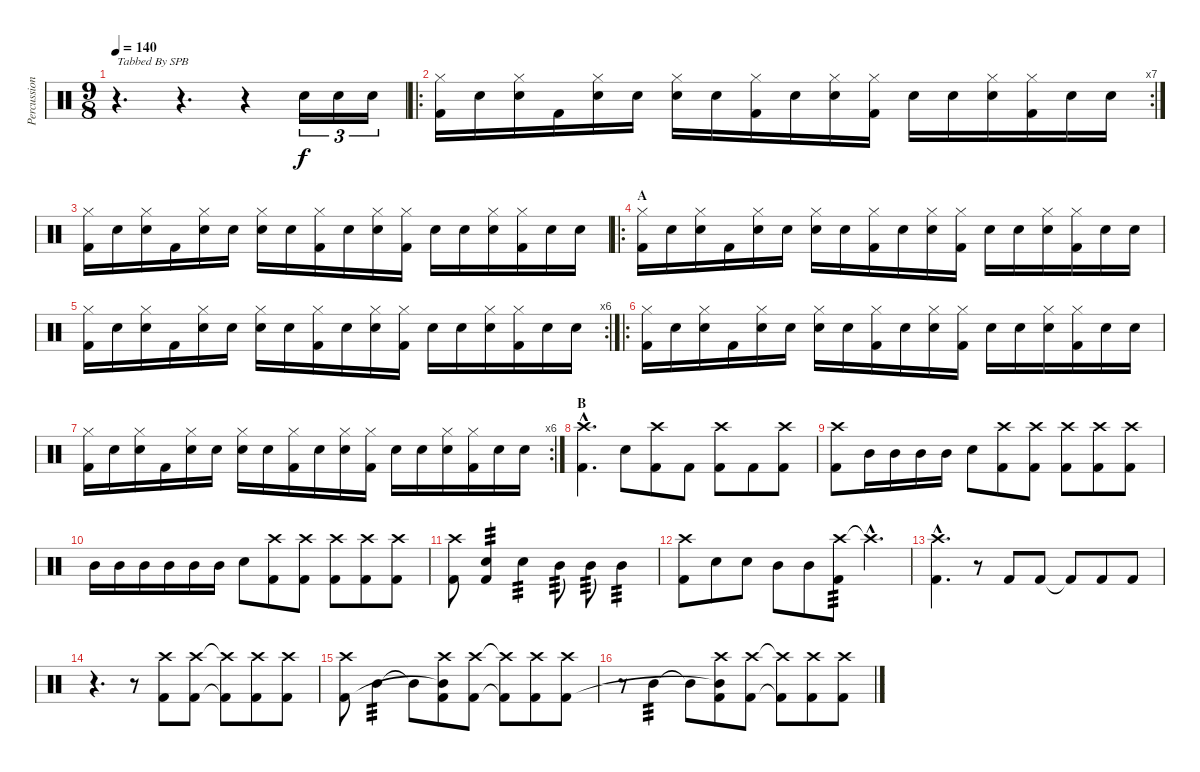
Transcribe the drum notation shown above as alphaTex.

\track ("Percussion" "Percussion") {instrument percussion}
\staff {score}
\articulation defaults
\ts (9 8)
\tempo 140
\clef neutral
\ks c
r.4{d txt "Tabbed By SPB" dy f} r.4{d} r.4 "Snare (hit) 2".16{tu (3 2)} "Snare (hit) 2".16{tu (3 2)} "Snare (hit) 2".16{tu (3 2)} |
\ro
\rc 7
("Hi-Hat (closed)" "Kick (hit) 2").16 "Snare (hit) 2".16 ("Hi-Hat (closed)" "Snare (hit) 2").16 "Kick (hit) 2".16 ("Hi-Hat (closed)" "Snare (hit) 2").16 "Snare (hit) 2".16 ("Hi-Hat (closed)" "Snare (hit) 2").16 "Snare (hit) 2".16 ("Hi-Hat (closed)" "Kick (hit) 2").16 "Snare (hit) 2".16 ("Hi-Hat (closed)" "Snare (hit) 2").16 ("Hi-Hat (closed)" "Kick (hit) 2").16 "Snare (hit) 2".16 "Snare (hit) 2".16 ("Hi-Hat (closed)" "Snare (hit) 2").16 ("Hi-Hat (closed)" "Kick (hit) 2").16 "Snare (hit) 2".16 "Snare (hit) 2".16 |
("Hi-Hat (closed)" "Kick (hit) 2").16 "Snare (hit) 2".16 ("Hi-Hat (closed)" "Snare (hit) 2").16 "Kick (hit) 2".16 ("Hi-Hat (closed)" "Snare (hit) 2").16 "Snare (hit) 2".16 ("Hi-Hat (closed)" "Snare (hit) 2").16 "Snare (hit) 2".16 ("Hi-Hat (closed)" "Kick (hit) 2").16 "Snare (hit) 2".16 ("Hi-Hat (closed)" "Snare (hit) 2").16 ("Hi-Hat (closed)" "Kick (hit) 2").16 "Snare (hit) 2".16 "Snare (hit) 2".16 ("Hi-Hat (closed)" "Snare (hit) 2").16 ("Hi-Hat (closed)" "Kick (hit) 2").16 "Snare (hit) 2".16 "Snare (hit) 2".16 |
\ro
\section ("" "A")
("Hi-Hat (closed)" "Kick (hit) 2").16 "Snare (hit) 2".16 ("Hi-Hat (closed)" "Snare (hit) 2").16 "Kick (hit) 2".16 ("Hi-Hat (closed)" "Snare (hit) 2").16 "Snare (hit) 2".16 ("Hi-Hat (closed)" "Snare (hit) 2").16 "Snare (hit) 2".16 ("Hi-Hat (closed)" "Kick (hit) 2").16 "Snare (hit) 2".16 ("Hi-Hat (closed)" "Snare (hit) 2").16 ("Hi-Hat (closed)" "Kick (hit) 2").16 "Snare (hit) 2".16 "Snare (hit) 2".16 ("Hi-Hat (closed)" "Snare (hit) 2").16 ("Hi-Hat (closed)" "Kick (hit) 2").16 "Snare (hit) 2".16 "Snare (hit) 2".16 |
\rc 6
("Hi-Hat (closed)" "Kick (hit) 2").16 "Snare (hit) 2".16 ("Hi-Hat (closed)" "Snare (hit) 2").16 "Kick (hit) 2".16 ("Hi-Hat (closed)" "Snare (hit) 2").16 "Snare (hit) 2".16 ("Hi-Hat (closed)" "Snare (hit) 2").16 "Snare (hit) 2".16 ("Hi-Hat (closed)" "Kick (hit) 2").16 "Snare (hit) 2".16 ("Hi-Hat (closed)" "Snare (hit) 2").16 ("Hi-Hat (closed)" "Kick (hit) 2").16 "Snare (hit) 2".16 "Snare (hit) 2".16 ("Hi-Hat (closed)" "Snare (hit) 2").16 ("Hi-Hat (closed)" "Kick (hit) 2").16 "Snare (hit) 2".16 "Snare (hit) 2".16 |
\ro
("Hi-Hat (closed)" "Kick (hit) 2").16 "Snare (hit) 2".16 ("Hi-Hat (closed)" "Snare (hit) 2").16 "Kick (hit) 2".16 ("Hi-Hat (closed)" "Snare (hit) 2").16 "Snare (hit) 2".16 ("Hi-Hat (closed)" "Snare (hit) 2").16 "Snare (hit) 2".16 ("Hi-Hat (closed)" "Kick (hit) 2").16 "Snare (hit) 2".16 ("Hi-Hat (closed)" "Snare (hit) 2").16 ("Hi-Hat (closed)" "Kick (hit) 2").16 "Snare (hit) 2".16 "Snare (hit) 2".16 ("Hi-Hat (closed)" "Snare (hit) 2").16 ("Hi-Hat (closed)" "Kick (hit) 2").16 "Snare (hit) 2".16 "Snare (hit) 2".16 |
\rc 6
("Hi-Hat (closed)" "Kick (hit) 2").16 "Snare (hit) 2".16 ("Hi-Hat (closed)" "Snare (hit) 2").16 "Kick (hit) 2".16 ("Hi-Hat (closed)" "Snare (hit) 2").16 "Snare (hit) 2".16 ("Hi-Hat (closed)" "Snare (hit) 2").16 "Snare (hit) 2".16 ("Hi-Hat (closed)" "Kick (hit) 2").16 "Snare (hit) 2".16 ("Hi-Hat (closed)" "Snare (hit) 2").16 ("Hi-Hat (closed)" "Kick (hit) 2").16 "Snare (hit) 2".16 "Snare (hit) 2".16 ("Hi-Hat (closed)" "Snare (hit) 2").16 ("Hi-Hat (closed)" "Kick (hit) 2").16 "Snare (hit) 2".16 "Snare (hit) 2".16 |
\section ("" "B")
("Crash high (hit)"{hac} "Kick (hit) 2"{hac}).4{d} "Snare (hit) 2".8 ("Crash high (hit)" "Kick (hit) 2").8 "Kick (hit) 2".8 ("Crash high (hit)" "Kick (hit) 2").8 "Kick (hit) 2".8 ("Crash high (hit)" "Kick (hit) 2").8 |
("Crash high (hit)" "Kick (hit) 2").8 "Mid Tom (hit)".16 "Mid Tom (hit)".16 "Mid Tom (hit)".16 "Mid Tom (hit)".16 "Snare (hit) 2".8 ("Crash high (hit)" "Kick (hit) 2").8 ("Crash high (hit)" "Kick (hit) 2").8 ("Crash high (hit)" "Kick (hit) 2").8 ("Crash high (hit)" "Kick (hit) 2").8 ("Crash high (hit)" "Kick (hit) 2").8 |
"Mid Tom (hit)".16 "Mid Tom (hit)".16 "Mid Tom (hit)".16 "Mid Tom (hit)".16 "Mid Tom (hit)".16 "Mid Tom (hit)".16 "Snare (hit) 2".8 ("Crash high (hit)" "Kick (hit) 2").8 ("Crash high (hit)" "Kick (hit) 2").8 ("Crash high (hit)" "Kick (hit) 2").8 ("Crash high (hit)" "Kick (hit) 2").8 ("Crash high (hit)" "Kick (hit) 2").8 |
("Crash high (hit)" "Kick (hit) 2").8 ("Snare (hit) 2" "Kick (hit) 2").4{tp 3} "Snare (hit) 2".4{tp 3} "Mid Tom (hit)".8{tp 3} "Mid Tom (hit)".8{tp 3} "Mid Tom (hit)".4{tp 3} |
("Crash high (hit)" "Kick (hit) 2").8 "Snare (hit) 2".8 "Snare (hit) 2".8 "Mid Tom (hit)".8 "Mid Tom (hit)".8 ("Crash high (hit)" "Kick (hit) 2").8{tp 3} "Crash high (hit)"{hac t}.4{d} |
("Crash high (hit)"{hac} "Kick (hit) 2"{hac}).4{d} r.8 "Kick (hit) 2".8 "Kick (hit) 2".8 "Kick (hit) 2"{t}.8 "Kick (hit) 2".8 "Kick (hit) 2".8 |
r.4{d} r.8 ("Crash high (hit)" "Kick (hit) 2").8 ("Crash high (hit)" "Kick (hit) 2").8 ("Crash high (hit)"{t} "Kick (hit) 2"{t}).8 ("Crash high (hit)" "Kick (hit) 2").8 ("Crash high (hit)" "Kick (hit) 2").8 |
("Crash high (hit)" "Kick (hit) 2").8 "Mid Tom (hit)".4{tp 3} "Mid Tom (hit)"{t}.8 ("Crash high (hit)" "Mid Tom (hit)"{t} "Kick (hit) 2").8 ("Crash high (hit)" "Kick (hit) 2").8 ("Crash high (hit)"{t} "Kick (hit) 2"{t}).8 ("Crash high (hit)" "Kick (hit) 2").8 ("Crash high (hit)" "Kick (hit) 2").8 |
r.8 "Mid Tom (hit)".4{tp 3} "Mid Tom (hit)"{t}.8 ("Crash high (hit)" "Mid Tom (hit)"{t} "Kick (hit) 2").8 ("Crash high (hit)" "Kick (hit) 2").8 ("Crash high (hit)"{t} "Kick (hit) 2"{t}).8 ("Crash high (hit)" "Kick (hit) 2").8 ("Crash high (hit)" "Kick (hit) 2").8
